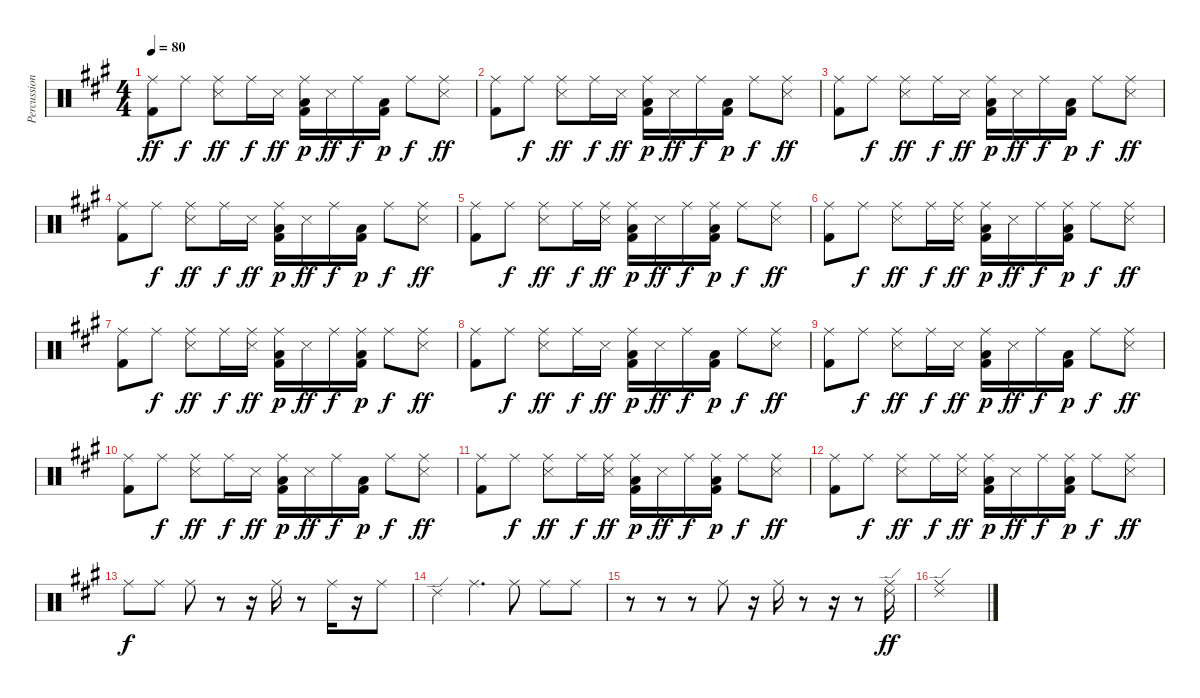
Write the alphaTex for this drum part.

\track ("Percussion" "Percussion") {instrument percussion}
\staff {score}
\articulation defaults
\ts (4 4)
\tempo 80
\clef neutral
\ks a
("Ride (middle)" "Kick (hit) 2").8{dy ff} "Ride (middle)".8{dy f} ("Ride (middle)" "Snare (side stick) 3").8{dy ff} "Ride (middle)".16{dy f} "Snare (side stick) 3".16{dy ff} ("Ride (middle)" "Kick (hit) 2" "Low Floor Tom (hit)").16{dy p} "Snare (side stick) 3".16{dy ff} "Ride (middle)".16{dy f} ("Kick (hit) 2" "Low Floor Tom (hit)").16{dy p} "Ride (middle)".8{dy f} ("Ride (middle)" "Snare (side stick) 3").8{dy ff} |
("Ride (middle)" "Kick (hit) 2").8 "Ride (middle)".8{dy f} ("Ride (middle)" "Snare (side stick) 3").8{dy ff} "Ride (middle)".16{dy f} "Snare (side stick) 3".16{dy ff} ("Ride (middle)" "Kick (hit) 2" "Low Floor Tom (hit)").16{dy p} "Snare (side stick) 3".16{dy ff} "Ride (middle)".16{dy f} ("Kick (hit) 2" "Low Floor Tom (hit)").16{dy p} "Ride (middle)".8{dy f} ("Ride (middle)" "Snare (side stick) 3").8{dy ff} |
("Ride (middle)" "Kick (hit) 2").8 "Ride (middle)".8{dy f} ("Ride (middle)" "Snare (side stick) 3").8{dy ff} "Ride (middle)".16{dy f} "Snare (side stick) 3".16{dy ff} ("Ride (middle)" "Kick (hit) 2" "Low Floor Tom (hit)").16{dy p} "Snare (side stick) 3".16{dy ff} "Ride (middle)".16{dy f} ("Kick (hit) 2" "Low Floor Tom (hit)").16{dy p} "Ride (middle)".8{dy f} ("Ride (middle)" "Snare (side stick) 3").8{dy ff} |
("Ride (middle)" "Kick (hit) 2").8 "Ride (middle)".8{dy f} ("Ride (middle)" "Snare (side stick) 3").8{dy ff} "Ride (middle)".16{dy f} "Snare (side stick) 3".16{dy ff} ("Ride (middle)" "Kick (hit) 2" "Low Floor Tom (hit)").16{dy p} "Snare (side stick) 3".16{dy ff} "Ride (middle)".16{dy f} ("Kick (hit) 2" "Low Floor Tom (hit)").16{dy p} "Ride (middle)".8{dy f} ("Ride (middle)" "Snare (side stick) 3").8{dy ff} |
("Ride (middle)" "Kick (hit) 2").8 "Ride (middle)".8{dy f} ("Ride (middle)" "Snare (side stick) 3").8{dy ff} "Ride (middle)".16{dy f} ("Ride (middle)" "Snare (side stick) 3").16{dy ff} ("Ride (middle)" "Kick (hit) 2" "Low Floor Tom (hit)").16{dy p} "Snare (side stick) 3".16{dy ff} "Ride (middle)".16{dy f} ("Ride (middle)" "Kick (hit) 2" "Low Floor Tom (hit)").16{dy p} "Ride (middle)".8{dy f} ("Ride (middle)" "Snare (side stick) 3").8{dy ff} |
("Ride (middle)" "Kick (hit) 2").8 "Ride (middle)".8{dy f} ("Ride (middle)" "Snare (side stick) 3").8{dy ff} "Ride (middle)".16{dy f} ("Ride (middle)" "Snare (side stick) 3").16{dy ff} ("Ride (middle)" "Kick (hit) 2" "Low Floor Tom (hit)").16{dy p} "Snare (side stick) 3".16{dy ff} "Ride (middle)".16{dy f} ("Ride (middle)" "Kick (hit) 2" "Low Floor Tom (hit)").16{dy p} "Ride (middle)".8{dy f} ("Ride (middle)" "Snare (side stick) 3").8{dy ff} |
("Ride (middle)" "Kick (hit) 2").8 "Ride (middle)".8{dy f} ("Ride (middle)" "Snare (side stick) 3").8{dy ff} "Ride (middle)".16{dy f} ("Ride (middle)" "Snare (side stick) 3").16{dy ff} ("Ride (middle)" "Kick (hit) 2" "Low Floor Tom (hit)").16{dy p} "Snare (side stick) 3".16{dy ff} "Ride (middle)".16{dy f} ("Ride (middle)" "Kick (hit) 2" "Low Floor Tom (hit)").16{dy p} "Ride (middle)".8{dy f} ("Ride (middle)" "Snare (side stick) 3").8{dy ff} |
("Ride (middle)" "Kick (hit) 2").8 "Ride (middle)".8{dy f} ("Ride (middle)" "Snare (side stick) 3").8{dy ff} "Ride (middle)".16{dy f} "Snare (side stick) 3".16{dy ff} ("Ride (middle)" "Kick (hit) 2" "Low Floor Tom (hit)").16{dy p} "Snare (side stick) 3".16{dy ff} "Ride (middle)".16{dy f} ("Kick (hit) 2" "Low Floor Tom (hit)").16{dy p} "Ride (middle)".8{dy f} ("Ride (middle)" "Snare (side stick) 3").8{dy ff} |
("Ride (middle)" "Kick (hit) 2").8 "Ride (middle)".8{dy f} ("Ride (middle)" "Snare (side stick) 3").8{dy ff} "Ride (middle)".16{dy f} "Snare (side stick) 3".16{dy ff} ("Ride (middle)" "Kick (hit) 2" "Low Floor Tom (hit)").16{dy p} "Snare (side stick) 3".16{dy ff} "Ride (middle)".16{dy f} ("Kick (hit) 2" "Low Floor Tom (hit)").16{dy p} "Ride (middle)".8{dy f} ("Ride (middle)" "Snare (side stick) 3").8{dy ff} |
("Ride (middle)" "Kick (hit) 2").8 "Ride (middle)".8{dy f} ("Ride (middle)" "Snare (side stick) 3").8{dy ff} "Ride (middle)".16{dy f} "Snare (side stick) 3".16{dy ff} ("Ride (middle)" "Kick (hit) 2" "Low Floor Tom (hit)").16{dy p} "Snare (side stick) 3".16{dy ff} "Ride (middle)".16{dy f} ("Kick (hit) 2" "Low Floor Tom (hit)").16{dy p} "Ride (middle)".8{dy f} ("Ride (middle)" "Snare (side stick) 3").8{dy ff} |
("Ride (middle)" "Kick (hit) 2").8 "Ride (middle)".8{dy f} ("Ride (middle)" "Snare (side stick) 3").8{dy ff} "Ride (middle)".16{dy f} ("Ride (middle)" "Snare (side stick) 3").16{dy ff} ("Ride (middle)" "Kick (hit) 2" "Low Floor Tom (hit)").16{dy p} "Snare (side stick) 3".16{dy ff} "Ride (middle)".16{dy f} ("Ride (middle)" "Kick (hit) 2" "Low Floor Tom (hit)").16{dy p} "Ride (middle)".8{dy f} ("Ride (middle)" "Snare (side stick) 3").8{dy ff} |
("Ride (middle)" "Kick (hit) 2").8 "Ride (middle)".8{dy f} ("Ride (middle)" "Snare (side stick) 3").8{dy ff} "Ride (middle)".16{dy f} ("Ride (middle)" "Snare (side stick) 3").16{dy ff} ("Ride (middle)" "Kick (hit) 2" "Low Floor Tom (hit)").16{dy p} "Snare (side stick) 3".16{dy ff} "Ride (middle)".16{dy f} ("Ride (middle)" "Kick (hit) 2" "Low Floor Tom (hit)").16{dy p} "Ride (middle)".8{dy f} ("Ride (middle)" "Snare (side stick) 3").8{dy ff} |
"Ride (middle)".8{dy f} "Ride (middle)".8 "Ride (middle)".8 r.8 r.16 "Ride (middle)".16 r.8 "Ride (middle)".16 r.16 "Ride (middle)".8 |
"Ride (edge) 2".4 "Ride (middle)".4{d} "Ride (middle)".8 "Ride (middle)".8 "Ride (middle)".8 |
r.8 r.8 r.8 "Ride (middle)".8 r.16 "Ride (middle)".16 r.8 r.16 r.8 ("Ride (edge) 2" "Ride (middle)").16{dy ff} |
("Ride (edge) 2" "Ride (middle)").1
